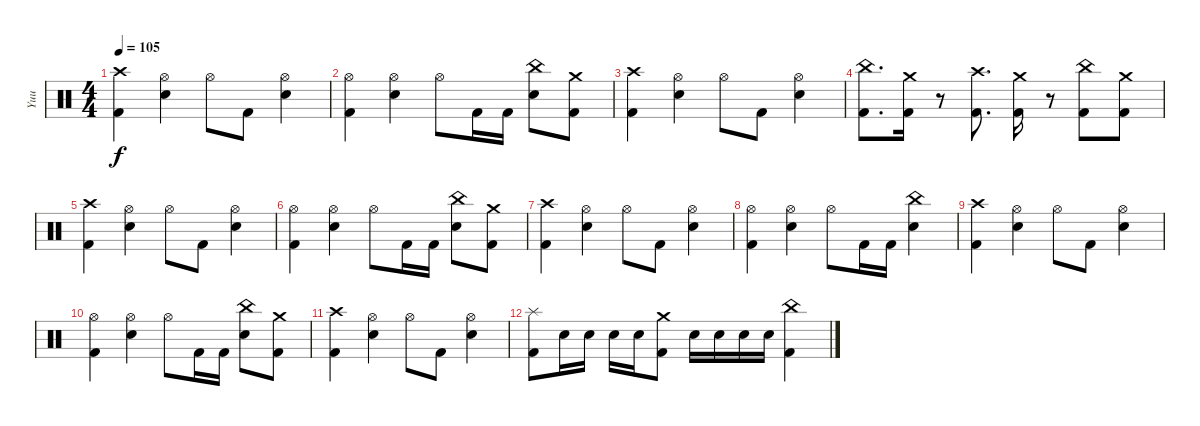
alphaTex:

\track ("Yuu" "Yuu") {instrument percussion}
\staff {score}
\articulation defaults
\ts (4 4)
\tempo 105
\clef neutral
\ks c
("Crash high (hit)" "Kick (hit) 2").4{dy f} ("Hi-Hat (open)" "Electric Snare (hit)").4 "Hi-Hat (open)".8 "Kick (hit) 2".8 ("Hi-Hat (open)" "Electric Snare (hit)").4 |
("Hi-Hat (open)" "Kick (hit) 2").4 ("Hi-Hat (open)" "Electric Snare (hit)").4 "Hi-Hat (open)".8 "Kick (hit) 2".16 "Kick (hit) 2".16 ("China (hit)" "Electric Snare (hit)").8 ("Crash medium (hit)" "Kick (hit) 2").8 |
("Crash high (hit)" "Kick (hit) 2").4 ("Hi-Hat (open)" "Electric Snare (hit)").4 "Hi-Hat (open)".8 "Kick (hit) 2".8 ("Hi-Hat (open)" "Electric Snare (hit)").4 |
("China (hit)" "Kick (hit) 2").8{d} ("Crash medium (hit)" "Kick (hit) 2").16 r.8 ("Crash high (hit)" "Kick (hit) 2").8{d} ("Crash medium (hit)" "Kick (hit) 2").16 r.8 ("China (hit)" "Kick (hit) 2").8 ("Crash medium (hit)" "Kick (hit) 2").8 |
("Crash high (hit)" "Kick (hit) 2").4 ("Hi-Hat (open)" "Electric Snare (hit)").4 "Hi-Hat (open)".8 "Kick (hit) 2".8 ("Hi-Hat (open)" "Electric Snare (hit)").4 |
("Hi-Hat (open)" "Kick (hit) 2").4 ("Hi-Hat (open)" "Electric Snare (hit)").4 "Hi-Hat (open)".8 "Kick (hit) 2".16 "Kick (hit) 2".16 ("China (hit)" "Electric Snare (hit)").8 ("Crash medium (hit)" "Kick (hit) 2").8 |
("Crash high (hit)" "Kick (hit) 2").4 ("Hi-Hat (open)" "Electric Snare (hit)").4 "Hi-Hat (open)".8 "Kick (hit) 2".8 ("Hi-Hat (open)" "Electric Snare (hit)").4 |
("Hi-Hat (open)" "Kick (hit) 2").4 ("Hi-Hat (open)" "Electric Snare (hit)").4 "Hi-Hat (open)".8 "Kick (hit) 2".16 "Kick (hit) 2".16 ("China (hit)" "Electric Snare (hit)").4 |
("Crash high (hit)" "Kick (hit) 2").4 ("Hi-Hat (open)" "Electric Snare (hit)").4 "Hi-Hat (open)".8 "Kick (hit) 2".8 ("Hi-Hat (open)" "Electric Snare (hit)").4 |
("Hi-Hat (open)" "Kick (hit) 2").4 ("Hi-Hat (open)" "Electric Snare (hit)").4 "Hi-Hat (open)".8 "Kick (hit) 2".16 "Kick (hit) 2".16 ("China (hit)" "Electric Snare (hit)").8 ("Crash medium (hit)" "Kick (hit) 2").8 |
("Crash high (hit)" "Kick (hit) 2").4 ("Hi-Hat (open)" "Electric Snare (hit)").4 "Hi-Hat (open)".8 "Kick (hit) 2".8 ("Hi-Hat (open)" "Electric Snare (hit)").4 |
("Splash (hit)" "Kick (hit) 2").8 "Electric Snare (hit)".16 "Electric Snare (hit)".16 "Electric Snare (hit)".16 "Electric Snare (hit)".16 ("Crash medium (hit)" "Kick (hit) 2").8 "Electric Snare (hit)".16 "Electric Snare (hit)".16 "Electric Snare (hit)".16 "Electric Snare (hit)".16 ("China (hit)" "Kick (hit) 2").4
